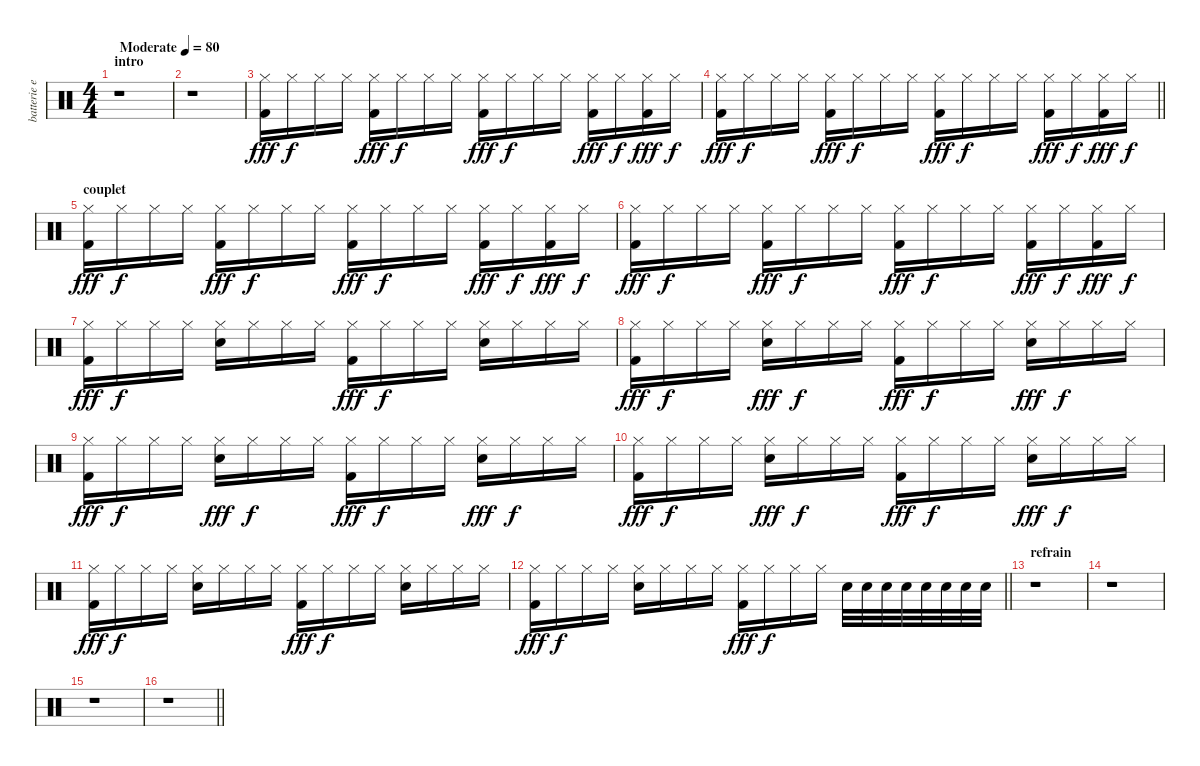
\track ("batterie eti" "batterie e") {instrument percussion}
\staff {score}
\articulation defaults
\ts (4 4)
\section ("" "intro")
\tempo (80 "Moderate")
\clef neutral
\ks c
r.1{dy fff} |
r.1 |
("Hi-Hat (closed)" "Kick (hit) 2").16 "Hi-Hat (closed)".16{dy f} "Hi-Hat (closed)".16 "Hi-Hat (closed)".16 ("Hi-Hat (closed)" "Kick (hit) 2").16{dy fff} "Hi-Hat (closed)".16{dy f} "Hi-Hat (closed)".16 "Hi-Hat (closed)".16 ("Hi-Hat (closed)" "Kick (hit) 2").16{dy fff} "Hi-Hat (closed)".16{dy f} "Hi-Hat (closed)".16 "Hi-Hat (closed)".16 ("Hi-Hat (closed)" "Kick (hit) 2").16{dy fff} "Hi-Hat (closed)".16{dy f} ("Hi-Hat (closed)" "Kick (hit) 2").16{dy fff} "Hi-Hat (closed)".16{dy f} |
\barLineRight lightlight
("Hi-Hat (closed)" "Kick (hit) 2").16{dy fff} "Hi-Hat (closed)".16{dy f} "Hi-Hat (closed)".16 "Hi-Hat (closed)".16 ("Hi-Hat (closed)" "Kick (hit) 2").16{dy fff} "Hi-Hat (closed)".16{dy f} "Hi-Hat (closed)".16 "Hi-Hat (closed)".16 ("Hi-Hat (closed)" "Kick (hit) 2").16{dy fff} "Hi-Hat (closed)".16{dy f} "Hi-Hat (closed)".16 "Hi-Hat (closed)".16 ("Hi-Hat (closed)" "Kick (hit) 2").16{dy fff} "Hi-Hat (closed)".16{dy f} ("Hi-Hat (closed)" "Kick (hit) 2").16{dy fff} "Hi-Hat (closed)".16{dy f} |
\section ("" "couplet")
("Hi-Hat (closed)" "Kick (hit) 2").16{dy fff} "Hi-Hat (closed)".16{dy f} "Hi-Hat (closed)".16 "Hi-Hat (closed)".16 ("Hi-Hat (closed)" "Kick (hit) 2").16{dy fff} "Hi-Hat (closed)".16{dy f} "Hi-Hat (closed)".16 "Hi-Hat (closed)".16 ("Hi-Hat (closed)" "Kick (hit) 2").16{dy fff} "Hi-Hat (closed)".16{dy f} "Hi-Hat (closed)".16 "Hi-Hat (closed)".16 ("Hi-Hat (closed)" "Kick (hit) 2").16{dy fff} "Hi-Hat (closed)".16{dy f} ("Hi-Hat (closed)" "Kick (hit) 2").16{dy fff} "Hi-Hat (closed)".16{dy f} |
("Hi-Hat (closed)" "Kick (hit) 2").16{dy fff} "Hi-Hat (closed)".16{dy f} "Hi-Hat (closed)".16 "Hi-Hat (closed)".16 ("Hi-Hat (closed)" "Kick (hit) 2").16{dy fff} "Hi-Hat (closed)".16{dy f} "Hi-Hat (closed)".16 "Hi-Hat (closed)".16 ("Hi-Hat (closed)" "Kick (hit) 2").16{dy fff} "Hi-Hat (closed)".16{dy f} "Hi-Hat (closed)".16 "Hi-Hat (closed)".16 ("Hi-Hat (closed)" "Kick (hit) 2").16{dy fff} "Hi-Hat (closed)".16{dy f} ("Hi-Hat (closed)" "Kick (hit) 2").16{dy fff} "Hi-Hat (closed)".16{dy f} |
("Hi-Hat (closed)" "Kick (hit) 2").16{dy fff} "Hi-Hat (closed)".16{dy f} "Hi-Hat (closed)".16 "Hi-Hat (closed)".16 ("Hi-Hat (closed)" "Electric Snare (hit)").16 "Hi-Hat (closed)".16 "Hi-Hat (closed)".16 "Hi-Hat (closed)".16 ("Hi-Hat (closed)" "Kick (hit) 2").16{dy fff} "Hi-Hat (closed)".16{dy f} "Hi-Hat (closed)".16 "Hi-Hat (closed)".16 ("Hi-Hat (closed)" "Electric Snare (hit)").16 "Hi-Hat (closed)".16 "Hi-Hat (closed)".16 "Hi-Hat (closed)".16 |
("Hi-Hat (closed)" "Kick (hit) 2").16{dy fff} "Hi-Hat (closed)".16{dy f} "Hi-Hat (closed)".16 "Hi-Hat (closed)".16 ("Hi-Hat (closed)" "Electric Snare (hit)").16{dy fff} "Hi-Hat (closed)".16{dy f} "Hi-Hat (closed)".16 "Hi-Hat (closed)".16 ("Hi-Hat (closed)" "Kick (hit) 2").16{dy fff} "Hi-Hat (closed)".16{dy f} "Hi-Hat (closed)".16 "Hi-Hat (closed)".16 ("Hi-Hat (closed)" "Electric Snare (hit)").16{dy fff} "Hi-Hat (closed)".16{dy f} "Hi-Hat (closed)".16 "Hi-Hat (closed)".16 |
("Hi-Hat (closed)" "Kick (hit) 2").16{dy fff} "Hi-Hat (closed)".16{dy f} "Hi-Hat (closed)".16 "Hi-Hat (closed)".16 ("Hi-Hat (closed)" "Electric Snare (hit)").16{dy fff} "Hi-Hat (closed)".16{dy f} "Hi-Hat (closed)".16 "Hi-Hat (closed)".16 ("Hi-Hat (closed)" "Kick (hit) 2").16{dy fff} "Hi-Hat (closed)".16{dy f} "Hi-Hat (closed)".16 "Hi-Hat (closed)".16 ("Hi-Hat (closed)" "Electric Snare (hit)").16{dy fff} "Hi-Hat (closed)".16{dy f} "Hi-Hat (closed)".16 "Hi-Hat (closed)".16 |
("Hi-Hat (closed)" "Kick (hit) 2").16{dy fff} "Hi-Hat (closed)".16{dy f} "Hi-Hat (closed)".16 "Hi-Hat (closed)".16 ("Hi-Hat (closed)" "Electric Snare (hit)").16{dy fff} "Hi-Hat (closed)".16{dy f} "Hi-Hat (closed)".16 "Hi-Hat (closed)".16 ("Hi-Hat (closed)" "Kick (hit) 2").16{dy fff} "Hi-Hat (closed)".16{dy f} "Hi-Hat (closed)".16 "Hi-Hat (closed)".16 ("Hi-Hat (closed)" "Electric Snare (hit)").16{dy fff} "Hi-Hat (closed)".16{dy f} "Hi-Hat (closed)".16 "Hi-Hat (closed)".16 |
("Hi-Hat (closed)" "Kick (hit) 2").16{dy fff} "Hi-Hat (closed)".16{dy f} "Hi-Hat (closed)".16 "Hi-Hat (closed)".16 ("Hi-Hat (closed)" "Electric Snare (hit)").16 "Hi-Hat (closed)".16 "Hi-Hat (closed)".16 "Hi-Hat (closed)".16 ("Hi-Hat (closed)" "Kick (hit) 2").16{dy fff} "Hi-Hat (closed)".16{dy f} "Hi-Hat (closed)".16 "Hi-Hat (closed)".16 ("Hi-Hat (closed)" "Electric Snare (hit)").16 "Hi-Hat (closed)".16 "Hi-Hat (closed)".16 "Hi-Hat (closed)".16 |
\barLineRight lightlight
("Hi-Hat (closed)" "Kick (hit) 2").16{dy fff} "Hi-Hat (closed)".16{dy f} "Hi-Hat (closed)".16 "Hi-Hat (closed)".16 ("Hi-Hat (closed)" "Electric Snare (hit)").16 "Hi-Hat (closed)".16 "Hi-Hat (closed)".16 "Hi-Hat (closed)".16 ("Hi-Hat (closed)" "Kick (hit) 2").16{dy fff} "Hi-Hat (closed)".16{dy f} "Hi-Hat (closed)".16 "Hi-Hat (closed)".16 "Electric Snare (hit)".32 "Electric Snare (hit)".32 "Electric Snare (hit)".32 "Electric Snare (hit)".32 "Electric Snare (hit)".32 "Electric Snare (hit)".32 "Electric Snare (hit)".32 "Electric Snare (hit)".32 |
\section ("" "refrain")
r.1 |
r.1 |
r.1 |
\barLineRight lightlight
r.1
